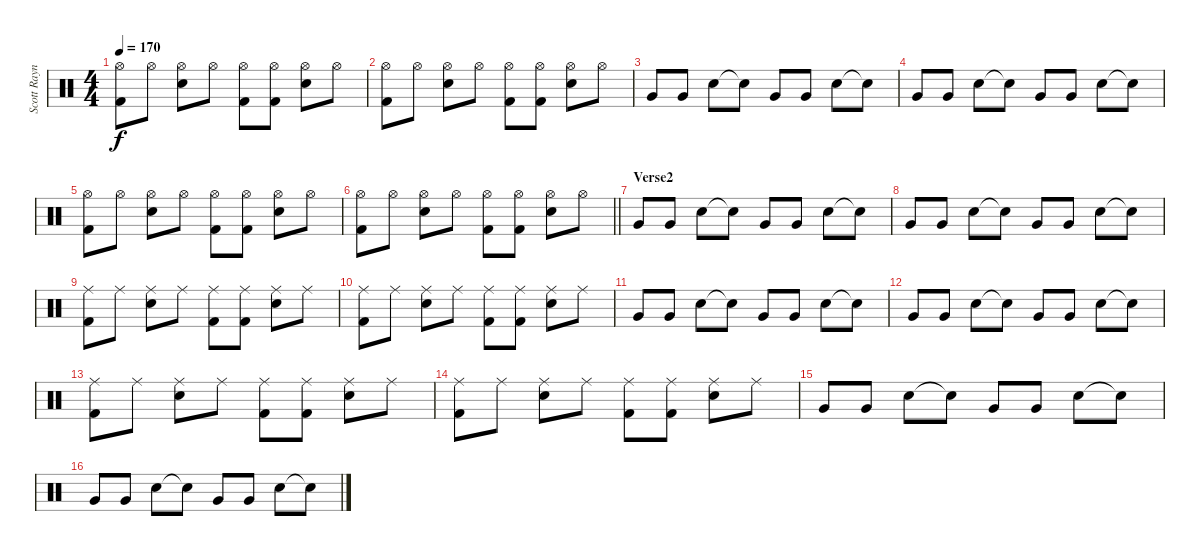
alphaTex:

\track ("Scott Raynor" "Scott Rayn") {instrument percussion}
\staff {score}
\articulation defaults
\ts (4 4)
\tempo 170
\clef neutral
\ks c
("Hi-Hat (open)" "Kick (hit) 2").8{dy f} "Hi-Hat (open)".8 ("Hi-Hat (open)" "Snare (hit) 2").8 "Hi-Hat (open)".8 ("Hi-Hat (open)" "Kick (hit) 2").8 ("Hi-Hat (open)" "Kick (hit) 2").8 ("Hi-Hat (open)" "Snare (hit) 2").8 "Hi-Hat (open)".8 |
("Hi-Hat (open)" "Kick (hit) 2").8 "Hi-Hat (open)".8 ("Hi-Hat (open)" "Snare (hit) 2").8 "Hi-Hat (open)".8 ("Hi-Hat (open)" "Kick (hit) 2").8 ("Hi-Hat (open)" "Kick (hit) 2").8 ("Hi-Hat (open)" "Snare (hit) 2").8 "Hi-Hat (open)".8 |
"Very Low Tom (hit)".8 "Very Low Tom (hit)".8 "Snare (hit) 2".8 "Snare (hit)"{t}.8 "Very Low Tom (hit)".8 "Very Low Tom (hit)".8 "Snare (hit) 2".8 "Snare (hit)"{t}.8 |
"Very Low Tom (hit)".8 "Very Low Tom (hit)".8 "Snare (hit) 2".8 "Snare (hit)"{t}.8 "Very Low Tom (hit)".8 "Very Low Tom (hit)".8 "Snare (hit) 2".8 "Snare (hit)"{t}.8 |
("Hi-Hat (open)" "Kick (hit) 2").8 "Hi-Hat (open)".8 ("Hi-Hat (open)" "Snare (hit) 2").8 "Hi-Hat (open)".8 ("Hi-Hat (open)" "Kick (hit) 2").8 ("Hi-Hat (open)" "Kick (hit) 2").8 ("Hi-Hat (open)" "Snare (hit) 2").8 "Hi-Hat (open)".8 |
\barLineRight lightlight
("Hi-Hat (open)" "Kick (hit) 2").8 "Hi-Hat (open)".8 ("Hi-Hat (open)" "Snare (hit) 2").8 "Hi-Hat (open)".8 ("Hi-Hat (open)" "Kick (hit) 2").8 ("Hi-Hat (open)" "Kick (hit) 2").8 ("Hi-Hat (open)" "Snare (hit) 2").8 "Hi-Hat (open)".8 |
\section ("" "Verse2")
"Very Low Tom (hit)".8 "Very Low Tom (hit)".8 "Snare (hit) 2".8 "Snare (hit)"{t}.8 "Very Low Tom (hit)".8 "Very Low Tom (hit)".8 "Snare (hit) 2".8 "Snare (hit)"{t}.8 |
"Very Low Tom (hit)".8 "Very Low Tom (hit)".8 "Snare (hit) 2".8 "Snare (hit)"{t}.8 "Very Low Tom (hit)".8 "Very Low Tom (hit)".8 "Snare (hit) 2".8 "Snare (hit)"{t}.8 |
("Ride (middle)" "Kick (hit) 2").8 "Ride (middle)".8 ("Ride (middle)" "Snare (hit) 2").8 "Ride (middle)".8 ("Ride (middle)" "Kick (hit) 2").8 ("Ride (middle)" "Kick (hit) 2").8 ("Ride (middle)" "Snare (hit) 2").8 "Ride (middle)".8 |
("Ride (middle)" "Kick (hit) 2").8 "Ride (middle)".8 ("Ride (middle)" "Snare (hit) 2").8 "Ride (middle)".8 ("Ride (middle)" "Kick (hit) 2").8 ("Ride (middle)" "Kick (hit) 2").8 ("Ride (middle)" "Snare (hit) 2").8 "Ride (middle)".8 |
"Very Low Tom (hit)".8 "Very Low Tom (hit)".8 "Snare (hit) 2".8 "Snare (hit)"{t}.8 "Very Low Tom (hit)".8 "Very Low Tom (hit)".8 "Snare (hit) 2".8 "Snare (hit)"{t}.8 |
"Very Low Tom (hit)".8 "Very Low Tom (hit)".8 "Snare (hit) 2".8 "Snare (hit)"{t}.8 "Very Low Tom (hit)".8 "Very Low Tom (hit)".8 "Snare (hit) 2".8 "Snare (hit)"{t}.8 |
("Ride (middle)" "Kick (hit) 2").8 "Ride (middle)".8 ("Ride (middle)" "Snare (hit) 2").8 "Ride (middle)".8 ("Ride (middle)" "Kick (hit) 2").8 ("Ride (middle)" "Kick (hit) 2").8 ("Ride (middle)" "Snare (hit) 2").8 "Ride (middle)".8 |
("Ride (middle)" "Kick (hit) 2").8 "Ride (middle)".8 ("Ride (middle)" "Snare (hit) 2").8 "Ride (middle)".8 ("Ride (middle)" "Kick (hit) 2").8 ("Ride (middle)" "Kick (hit) 2").8 ("Ride (middle)" "Snare (hit) 2").8 "Ride (middle)".8 |
"Very Low Tom (hit)".8 "Very Low Tom (hit)".8 "Snare (hit) 2".8 "Snare (hit)"{t}.8 "Very Low Tom (hit)".8 "Very Low Tom (hit)".8 "Snare (hit) 2".8 "Snare (hit)"{t}.8 |
"Very Low Tom (hit)".8 "Very Low Tom (hit)".8 "Snare (hit) 2".8 "Snare (hit)"{t}.8 "Very Low Tom (hit)".8 "Very Low Tom (hit)".8 "Snare (hit) 2".8 "Snare (hit)"{t}.8
